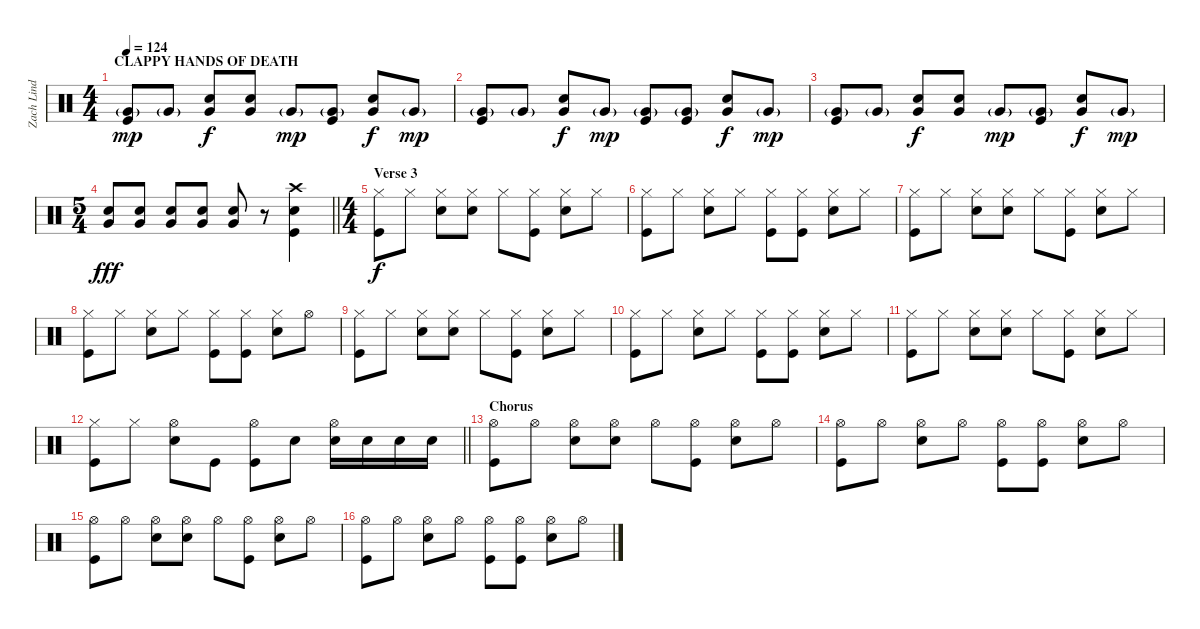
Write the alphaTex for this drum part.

\track ("Zach Lind - Drums" "Zach Lind ") {instrument percussion}
\staff {score}
\articulation defaults
\ts (4 4)
\section ("" "CLAPPY HANDS OF DEATH")
\tempo 124
\clef neutral
\ks c
("Kick (hit)" "Very Low Tom (hit)"{g}).8{dy mp} "Very Low Tom (hit)"{g}.8 ("Snare (hit) 2" "Very Low Tom (hit)").8{dy f} ("Snare (hit) 2" "Very Low Tom (hit)").8 "Very Low Tom (hit)"{g}.8{dy mp} ("Kick (hit)" "Very Low Tom (hit)"{g}).8 ("Snare (hit) 2" "Very Low Tom (hit)").8{dy f} "Very Low Tom (hit)"{g}.8{dy mp} |
("Kick (hit)" "Very Low Tom (hit)"{g}).8 "Very Low Tom (hit)"{g}.8 ("Snare (hit) 2" "Very Low Tom (hit)").8{dy f} "Very Low Tom (hit)"{g}.8{dy mp} ("Kick (hit)" "Very Low Tom (hit)"{g}).8 ("Kick (hit)" "Very Low Tom (hit)"{g}).8 ("Snare (hit) 2" "Very Low Tom (hit)").8{dy f} "Very Low Tom (hit)"{g}.8{dy mp} |
("Kick (hit)" "Very Low Tom (hit)"{g}).8 "Very Low Tom (hit)"{g}.8 ("Snare (hit) 2" "Very Low Tom (hit)").8{dy f} ("Snare (hit) 2" "Very Low Tom (hit)").8 "Very Low Tom (hit)"{g}.8{dy mp} ("Kick (hit)" "Very Low Tom (hit)"{g}).8 ("Snare (hit) 2" "Very Low Tom (hit)").8{dy f} "Very Low Tom (hit)"{g}.8{dy mp} |
\ts (5 4)
\barLineRight lightlight
("Snare (hit) 2" "Very Low Tom (hit)").8{dy fff} ("Snare (hit) 2" "Very Low Tom (hit)").8 ("Snare (hit) 2" "Very Low Tom (hit)").8 ("Snare (hit) 2" "Very Low Tom (hit)").8 ("Snare (hit) 2" "Very Low Tom (hit)").8 r.8 ("Snare (hit) 2" "Kick (hit)" "Crash high (hit)").4 |
\ts (4 4)
\section ("" "Verse 3")
("Kick (hit)" "Hi-Hat (closed)").8{dy f} "Hi-Hat (closed)".8 ("Snare (hit) 2" "Hi-Hat (closed)").8 ("Snare (hit) 2" "Hi-Hat (closed)").8 "Hi-Hat (closed)".8 ("Kick (hit)" "Hi-Hat (closed)").8 ("Snare (hit) 2" "Hi-Hat (closed)").8 "Hi-Hat (closed)".8 |
("Kick (hit)" "Hi-Hat (closed)").8 "Hi-Hat (closed)".8 ("Snare (hit) 2" "Hi-Hat (closed)").8 "Hi-Hat (closed)".8 ("Kick (hit)" "Hi-Hat (closed)").8 ("Kick (hit)" "Hi-Hat (closed)").8 ("Snare (hit) 2" "Hi-Hat (closed)").8 "Hi-Hat (closed)".8 |
("Kick (hit)" "Hi-Hat (closed)").8 "Hi-Hat (closed)".8 ("Snare (hit) 2" "Hi-Hat (closed)").8 ("Snare (hit) 2" "Hi-Hat (closed)").8 "Hi-Hat (closed)".8 ("Kick (hit)" "Hi-Hat (closed)").8 ("Snare (hit) 2" "Hi-Hat (closed)").8 "Hi-Hat (closed)".8 |
("Kick (hit)" "Hi-Hat (closed)").8 "Hi-Hat (closed)".8 ("Snare (hit) 2" "Hi-Hat (closed)").8 "Hi-Hat (closed)".8 ("Kick (hit)" "Hi-Hat (closed)").8 ("Kick (hit)" "Hi-Hat (closed)").8 ("Snare (hit) 2" "Hi-Hat (closed)").8 "Hi-Hat (open)".8 |
("Kick (hit)" "Hi-Hat (closed)").8 "Hi-Hat (closed)".8 ("Snare (hit) 2" "Hi-Hat (closed)").8 ("Snare (hit) 2" "Hi-Hat (closed)").8 "Hi-Hat (closed)".8 ("Kick (hit)" "Hi-Hat (closed)").8 ("Snare (hit) 2" "Hi-Hat (closed)").8 "Hi-Hat (closed)".8 |
("Kick (hit)" "Hi-Hat (closed)").8 "Hi-Hat (closed)".8 ("Snare (hit) 2" "Hi-Hat (closed)").8 "Hi-Hat (closed)".8 ("Kick (hit)" "Hi-Hat (closed)").8 ("Kick (hit)" "Hi-Hat (closed)").8 ("Snare (hit) 2" "Hi-Hat (closed)").8 "Hi-Hat (closed)".8 |
("Kick (hit)" "Hi-Hat (closed)").8 "Hi-Hat (closed)".8 ("Snare (hit) 2" "Hi-Hat (closed)").8 ("Snare (hit) 2" "Hi-Hat (closed)").8 "Hi-Hat (closed)".8 ("Kick (hit)" "Hi-Hat (closed)").8 ("Snare (hit) 2" "Hi-Hat (closed)").8 "Hi-Hat (closed)".8 |
\barLineRight lightlight
("Kick (hit)" "Hi-Hat (closed)").8 "Hi-Hat (closed)".8 ("Snare (hit) 2" "Hi-Hat (open)").8 "Kick (hit)".8 ("Kick (hit)" "Hi-Hat (open)").8 "Snare (hit) 2".8 ("Snare (hit) 2" "Hi-Hat (open)").16 "Snare (hit) 2".16 "Snare (hit) 2".16 "Snare (hit) 2".16 |
\section ("" "Chorus")
("Kick (hit)" "Hi-Hat (open)").8 "Hi-Hat (open)".8 ("Snare (hit) 2" "Hi-Hat (open)").8 ("Snare (hit) 2" "Hi-Hat (open)").8 "Hi-Hat (open)".8 ("Kick (hit)" "Hi-Hat (open)").8 ("Snare (hit) 2" "Hi-Hat (open)").8 "Hi-Hat (open)".8 |
("Kick (hit)" "Hi-Hat (open)").8 "Hi-Hat (open)".8 ("Snare (hit) 2" "Hi-Hat (open)").8 "Hi-Hat (open)".8 ("Kick (hit)" "Hi-Hat (open)").8 ("Kick (hit)" "Hi-Hat (open)").8 ("Snare (hit) 2" "Hi-Hat (open)").8 "Hi-Hat (open)".8 |
("Kick (hit)" "Hi-Hat (open)").8 "Hi-Hat (open)".8 ("Snare (hit) 2" "Hi-Hat (open)").8 ("Snare (hit) 2" "Hi-Hat (open)").8 "Hi-Hat (open)".8 ("Kick (hit)" "Hi-Hat (open)").8 ("Snare (hit) 2" "Hi-Hat (open)").8 "Hi-Hat (open)".8 |
("Kick (hit)" "Hi-Hat (open)").8 "Hi-Hat (open)".8 ("Snare (hit) 2" "Hi-Hat (open)").8 "Hi-Hat (open)".8 ("Kick (hit)" "Hi-Hat (open)").8 ("Kick (hit)" "Hi-Hat (open)").8 ("Snare (hit) 2" "Hi-Hat (open)").8 "Hi-Hat (open)".8
